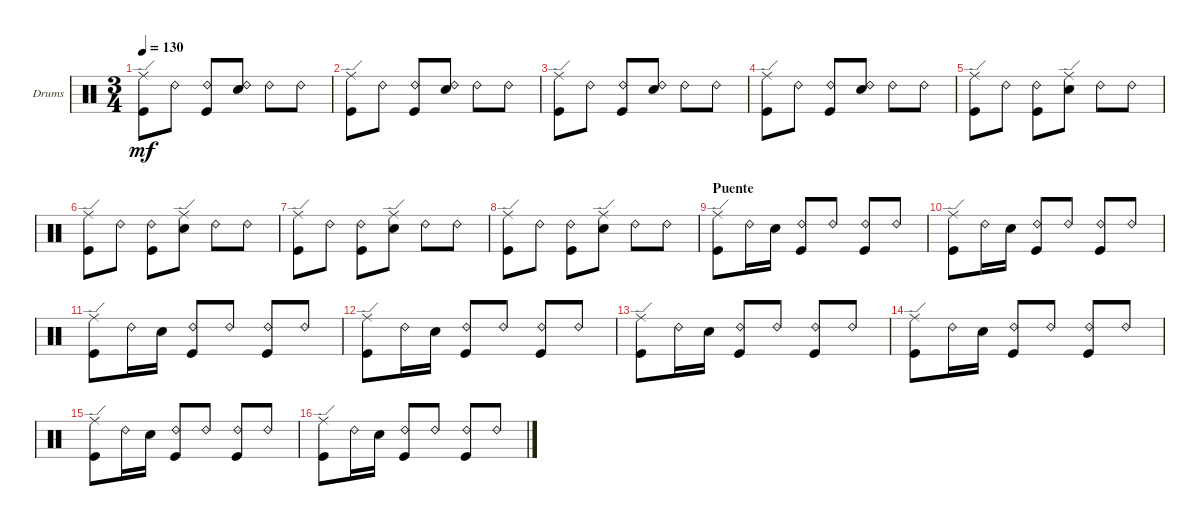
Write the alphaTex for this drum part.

\defaultSystemsLayout 4
\bracketExtendMode groupsimilarinstruments
\firstSystemTrackNameOrientation horizontal
\otherSystemsTrackNameOrientation horizontal
\track ("Drumkit" "Drums") {instrument percussion}
\staff {score}
\articulation defaults
\ts (3 4)
\tempo 130
\clef neutral
\ks c
("Kick (hit)" "Ride (edge)").8{dy mf} "Ride (bell) 2".8 ("Kick (hit)" "Ride (bell) 2").8 ("Snare (hit) 2" "Ride (bell) 2").8 "Ride (bell) 2".8 "Ride (bell) 2".8 |
("Kick (hit)" "Ride (edge)").8 "Ride (bell) 2".8 ("Kick (hit)" "Ride (bell) 2").8 ("Snare (hit) 2" "Ride (bell) 2").8 "Ride (bell) 2".8 "Ride (bell) 2".8 |
("Kick (hit)" "Ride (edge)").8 "Ride (bell) 2".8 ("Kick (hit)" "Ride (bell) 2").8 ("Snare (hit) 2" "Ride (bell) 2").8 "Ride (bell) 2".8 "Ride (bell) 2".8 |
("Kick (hit)" "Ride (edge)").8 "Ride (bell) 2".8 ("Kick (hit)" "Ride (bell) 2").8 ("Snare (hit) 2" "Ride (bell) 2").8 "Ride (bell) 2".8 "Ride (bell) 2".8 |
("Ride (edge)" "Kick (hit)").8 "Ride (bell) 2".8 ("Ride (bell) 2" "Kick (hit)").8 ("Ride (edge)" "Snare (hit) 2").8 "Ride (bell) 2".8 "Ride (bell) 2".8 |
("Ride (edge)" "Kick (hit)").8 "Ride (bell) 2".8 ("Ride (bell) 2" "Kick (hit)").8 ("Ride (edge)" "Snare (hit) 2").8 "Ride (bell) 2".8 "Ride (bell) 2".8 |
("Ride (edge)" "Kick (hit)").8 "Ride (bell) 2".8 ("Ride (bell) 2" "Kick (hit)").8 ("Ride (edge)" "Snare (hit) 2").8 "Ride (bell) 2".8 "Ride (bell) 2".8 |
("Ride (edge)" "Kick (hit)").8 "Ride (bell) 2".8 ("Ride (bell) 2" "Kick (hit)").8 ("Ride (edge)" "Snare (hit) 2").8 "Ride (bell) 2".8 "Ride (bell) 2".8 |
\section ("" "Puente")
("Kick (hit)" "Ride (edge)").8 "Ride (bell) 2".16 "Snare (hit) 2".16 ("Ride (bell) 2" "Kick (hit)").8 "Ride (bell) 2".8 ("Kick (hit)" "Ride (bell) 2").8 "Ride (bell) 2".8 |
("Kick (hit)" "Ride (edge)").8 "Ride (bell) 2".16 "Snare (hit) 2".16 ("Ride (bell) 2" "Kick (hit)").8 "Ride (bell) 2".8 ("Kick (hit)" "Ride (bell) 2").8 "Ride (bell) 2".8 |
("Kick (hit)" "Ride (edge)").8 "Ride (bell) 2".16 "Snare (hit) 2".16 ("Ride (bell) 2" "Kick (hit)").8 "Ride (bell) 2".8 ("Kick (hit)" "Ride (bell) 2").8 "Ride (bell) 2".8 |
("Kick (hit)" "Ride (edge)").8 "Ride (bell) 2".16 "Snare (hit) 2".16 ("Ride (bell) 2" "Kick (hit)").8 "Ride (bell) 2".8 ("Kick (hit)" "Ride (bell) 2").8 "Ride (bell) 2".8 |
("Kick (hit)" "Ride (edge)").8 "Ride (bell) 2".16 "Snare (hit) 2".16 ("Ride (bell) 2" "Kick (hit)").8 "Ride (bell) 2".8 ("Kick (hit)" "Ride (bell) 2").8 "Ride (bell) 2".8 |
("Kick (hit)" "Ride (edge)").8 "Ride (bell) 2".16 "Snare (hit) 2".16 ("Ride (bell) 2" "Kick (hit)").8 "Ride (bell) 2".8 ("Kick (hit)" "Ride (bell) 2").8 "Ride (bell) 2".8 |
("Kick (hit)" "Ride (edge)").8 "Ride (bell) 2".16 "Snare (hit) 2".16 ("Ride (bell) 2" "Kick (hit)").8 "Ride (bell) 2".8 ("Kick (hit)" "Ride (bell) 2").8 "Ride (bell) 2".8 |
("Kick (hit)" "Ride (edge)").8 "Ride (bell) 2".16 "Snare (hit) 2".16 ("Ride (bell) 2" "Kick (hit)").8 "Ride (bell) 2".8 ("Kick (hit)" "Ride (bell) 2").8 "Ride (bell) 2".8
